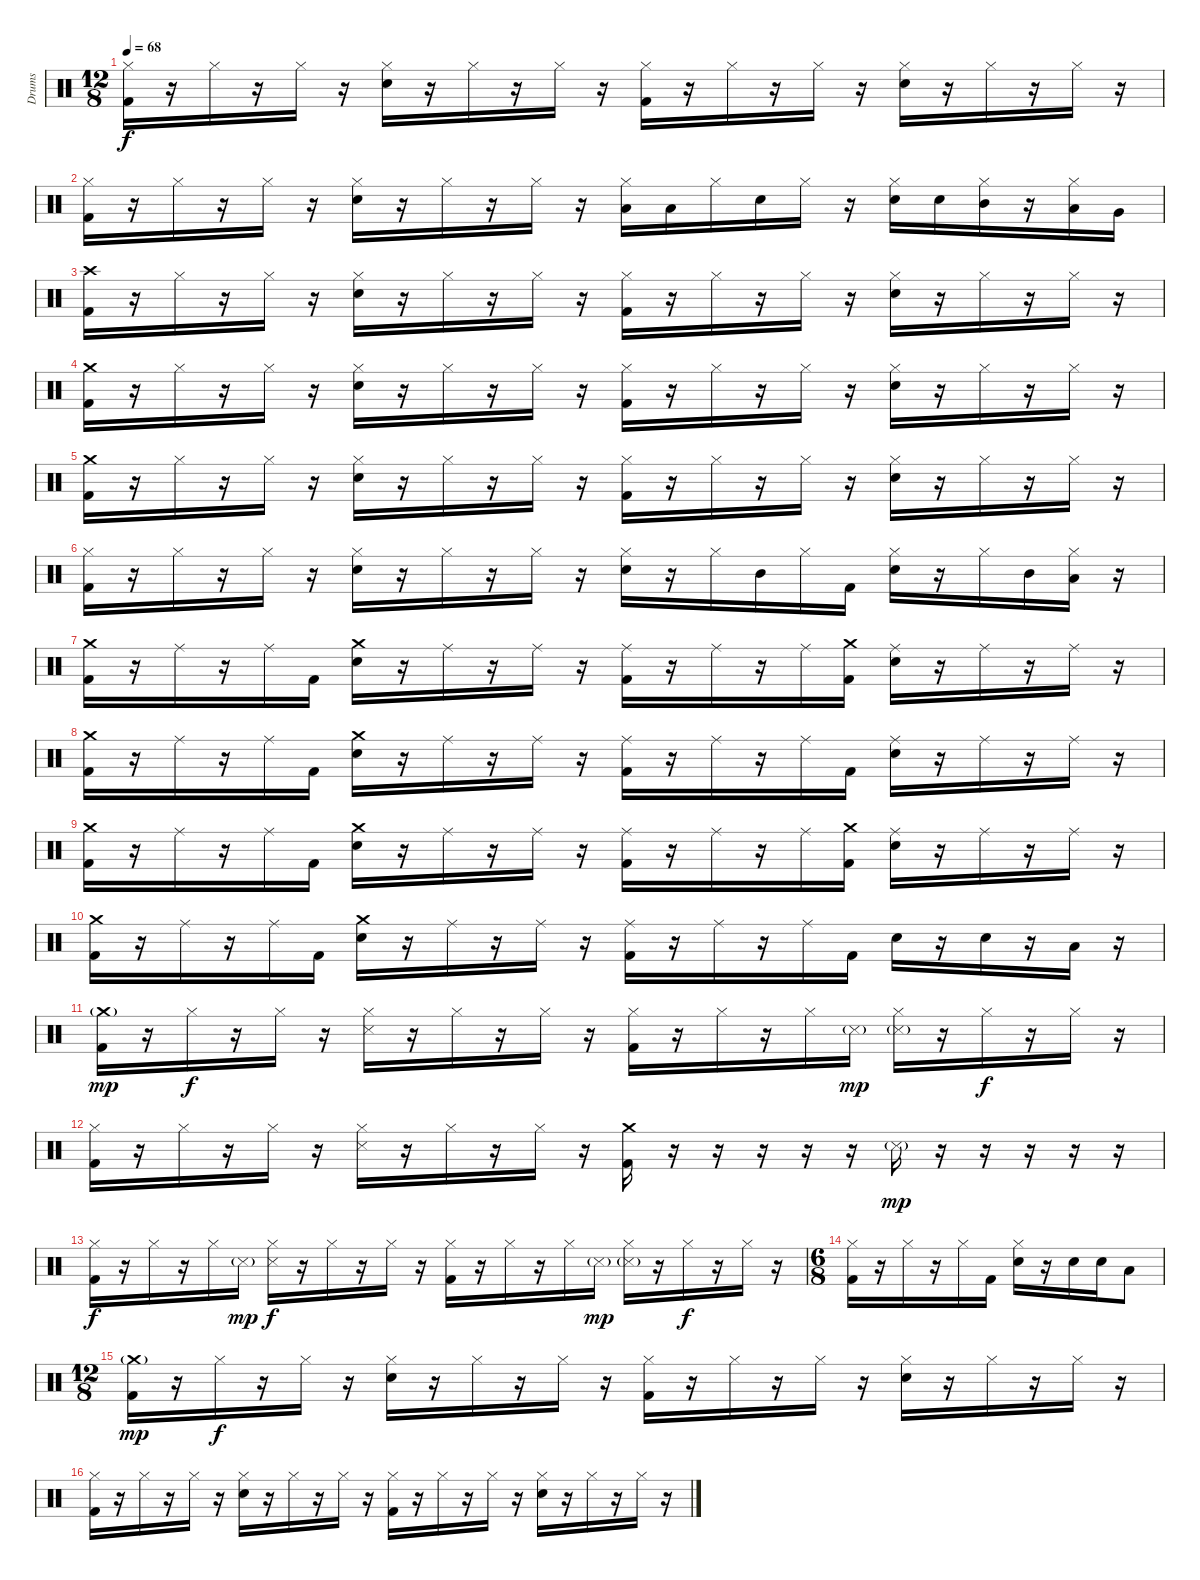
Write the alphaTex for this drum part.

\track ("Drums" "Drums") {instrument percussion}
\staff {score}
\articulation defaults
\ts (12 8)
\tempo 68
\clef neutral
\ks c
("Hi-Hat (closed)" "Kick (hit) 2").16{dy f} r.16 "Hi-Hat (closed)".16 r.16 "Hi-Hat (closed)".16 r.16 ("Hi-Hat (closed)" "Snare (hit) 2").16 r.16 "Hi-Hat (closed)".16 r.16 "Hi-Hat (closed)".16 r.16 ("Hi-Hat (closed)" "Kick (hit) 2").16 r.16 "Hi-Hat (closed)".16 r.16 "Hi-Hat (closed)".16 r.16 ("Hi-Hat (closed)" "Snare (hit) 2").16 r.16 "Hi-Hat (closed)".16 r.16 "Hi-Hat (closed)".16 r.16 |
("Hi-Hat (closed)" "Kick (hit) 2").16 r.16 "Hi-Hat (closed)".16 r.16 "Hi-Hat (closed)".16 r.16 ("Hi-Hat (closed)" "Snare (hit) 2").16 r.16 "Hi-Hat (closed)".16 r.16 "Hi-Hat (closed)".16 r.16 ("Hi-Hat (closed)" "Low Floor Tom (hit)").16 "Low Floor Tom (hit)".16 "Hi-Hat (closed)".16 "Snare (hit) 2".16 "Hi-Hat (closed)".16 r.16 ("Hi-Hat (closed)" "Snare (hit) 2").16 "Snare (hit) 2".16 ("Hi-Hat (closed)" "Mid Tom (hit)").16 r.16 ("Hi-Hat (closed)" "Low Tom (hit)").16 "Very Low Tom (hit)".16 |
("Crash high (hit)" "Kick (hit) 2").16 r.16 "Hi-Hat (closed)".16 r.16 "Hi-Hat (closed)".16 r.16 ("Hi-Hat (closed)" "Snare (hit) 2").16 r.16 "Hi-Hat (closed)".16 r.16 "Hi-Hat (closed)".16 r.16 ("Hi-Hat (closed)" "Kick (hit) 2").16 r.16 "Hi-Hat (closed)".16 r.16 "Hi-Hat (closed)".16 r.16 ("Hi-Hat (closed)" "Snare (hit) 2").16 r.16 "Hi-Hat (closed)".16 r.16 "Hi-Hat (closed)".16 r.16 |
("Crash medium (hit)" "Kick (hit) 2").16 r.16 "Hi-Hat (closed)".16 r.16 "Hi-Hat (closed)".16 r.16 ("Hi-Hat (closed)" "Snare (hit) 2").16 r.16 "Hi-Hat (closed)".16 r.16 "Hi-Hat (closed)".16 r.16 ("Hi-Hat (closed)" "Kick (hit) 2").16 r.16 "Hi-Hat (closed)".16 r.16 "Hi-Hat (closed)".16 r.16 ("Hi-Hat (closed)" "Snare (hit) 2").16 r.16 "Hi-Hat (closed)".16 r.16 "Hi-Hat (closed)".16 r.16 |
("Crash medium (hit)" "Kick (hit) 2").16 r.16 "Hi-Hat (closed)".16 r.16 "Hi-Hat (closed)".16 r.16 ("Hi-Hat (closed)" "Snare (hit) 2").16 r.16 "Hi-Hat (closed)".16 r.16 "Hi-Hat (closed)".16 r.16 ("Hi-Hat (closed)" "Kick (hit) 2").16 r.16 "Hi-Hat (closed)".16 r.16 "Hi-Hat (closed)".16 r.16 ("Hi-Hat (closed)" "Snare (hit) 2").16 r.16 "Hi-Hat (closed)".16 r.16 "Hi-Hat (closed)".16 r.16 |
("Hi-Hat (closed)" "Kick (hit) 2").16 r.16 "Hi-Hat (closed)".16 r.16 "Hi-Hat (closed)".16 r.16 ("Hi-Hat (closed)" "Snare (hit) 2").16 r.16 "Hi-Hat (closed)".16 r.16 "Hi-Hat (closed)".16 r.16 ("Hi-Hat (closed)" "Snare (hit) 2").16 r.16 "Hi-Hat (closed)".16 "Mid Tom (hit)".16 "Hi-Hat (closed)".16 "Kick (hit) 2".16 ("Hi-Hat (closed)" "Snare (hit) 2").16 r.16 "Hi-Hat (closed)".16 "Mid Tom (hit)".16 ("Hi-Hat (closed)" "Low Tom (hit)").16 r.16 |
("Crash medium (hit)" "Kick (hit) 2").16 r.16 "Ride (middle)".16 r.16 "Ride (middle)".16 "Kick (hit) 2".16 ("Crash medium (hit)" "Snare (hit) 2").16 r.16 "Ride (middle)".16 r.16 "Ride (middle)".16 r.16 ("Ride (middle)" "Kick (hit) 2").16 r.16 "Ride (middle)".16 r.16 "Ride (middle)".16 ("Crash medium (hit)" "Kick (hit) 2").16 ("Ride (middle)" "Snare (hit) 2").16 r.16 "Ride (middle)".16 r.16 "Ride (middle)".16 r.16 |
("Crash medium (hit)" "Kick (hit) 2").16 r.16 "Ride (middle)".16 r.16 "Ride (middle)".16 "Kick (hit) 2".16 ("Crash medium (hit)" "Snare (hit) 2").16 r.16 "Ride (middle)".16 r.16 "Ride (middle)".16 r.16 ("Ride (middle)" "Kick (hit) 2").16 r.16 "Ride (middle)".16 r.16 "Ride (middle)".16 "Kick (hit) 2".16 ("Ride (middle)" "Snare (hit) 2").16 r.16 "Ride (middle)".16 r.16 "Ride (middle)".16 r.16 |
("Crash medium (hit)" "Kick (hit) 2").16 r.16 "Ride (middle)".16 r.16 "Ride (middle)".16 "Kick (hit) 2".16 ("Crash medium (hit)" "Snare (hit) 2").16 r.16 "Ride (middle)".16 r.16 "Ride (middle)".16 r.16 ("Ride (middle)" "Kick (hit) 2").16 r.16 "Ride (middle)".16 r.16 "Ride (middle)".16 ("Crash medium (hit)" "Kick (hit) 2").16 ("Ride (middle)" "Snare (hit) 2").16 r.16 "Ride (middle)".16 r.16 "Ride (middle)".16 r.16 |
("Crash medium (hit)" "Kick (hit) 2").16 r.16 "Ride (middle)".16 r.16 "Ride (middle)".16 "Kick (hit) 2".16 ("Crash medium (hit)" "Snare (hit) 2").16 r.16 "Ride (middle)".16 r.16 "Ride (middle)".16 r.16 ("Ride (middle)" "Kick (hit) 2").16 r.16 "Ride (middle)".16 r.16 "Ride (middle)".16 "Kick (hit) 2".16 "Snare (hit) 2".16 r.16 "Snare (hit) 2".16 r.16 "Low Tom (hit)".16 r.16 |
("Crash medium (hit)"{g} "Kick (hit) 2").16{dy mp} r.16 "Hi-Hat (closed)".16{dy f} r.16 "Hi-Hat (closed)".16 r.16 ("Hi-Hat (closed)" "Snare (side stick) 3").16 r.16 "Hi-Hat (closed)".16 r.16 "Hi-Hat (closed)".16 r.16 ("Hi-Hat (closed)" "Kick (hit) 2").16 r.16 "Hi-Hat (closed)".16 r.16 "Hi-Hat (closed)".16 "Snare (side stick) 3"{g}.16{dy mp} ("Hi-Hat (closed)" "Snare (side stick) 3"{g}).16 r.16 "Hi-Hat (closed)".16{dy f} r.16 "Hi-Hat (closed)".16 r.16 |
("Hi-Hat (closed)" "Kick (hit) 2").16 r.16 "Hi-Hat (closed)".16 r.16 "Hi-Hat (closed)".16 r.16 ("Hi-Hat (closed)" "Snare (side stick) 3").16 r.16 "Hi-Hat (closed)".16 r.16 "Hi-Hat (closed)".16 r.16 ("Crash medium (hit)" "Kick (hit) 2").16 r.16 r.16 r.16 r.16 r.16 "Snare (side stick) 3"{g}.16{dy mp} r.16 r.16 r.16 r.16 r.16 |
("Hi-Hat (closed)" "Kick (hit) 2").16{dy f} r.16 "Hi-Hat (closed)".16 r.16 "Hi-Hat (closed)".16 "Snare (side stick) 3"{g}.16{dy mp} ("Hi-Hat (closed)" "Snare (side stick) 3").16{dy f} r.16 "Hi-Hat (closed)".16 r.16 "Hi-Hat (closed)".16 r.16 ("Hi-Hat (closed)" "Kick (hit) 2").16 r.16 "Hi-Hat (closed)".16 r.16 "Hi-Hat (closed)".16 "Snare (side stick) 3"{g}.16{dy mp} ("Hi-Hat (closed)" "Snare (side stick) 3"{g}).16 r.16 "Hi-Hat (closed)".16{dy f} r.16 "Hi-Hat (closed)".16 r.16 |
\ts (6 8)
("Hi-Hat (closed)" "Kick (hit) 2").16 r.16 "Hi-Hat (closed)".16 r.16 "Hi-Hat (closed)".16 "Kick (hit) 2".16 ("Hi-Hat (closed)" "Snare (hit) 2").16 r.16 "Snare (hit) 2".16 "Snare (hit) 2".16 "Low Tom (hit)".8 |
\ts (12 8)
("Crash medium (hit)"{g} "Kick (hit) 2").16{dy mp} r.16 "Hi-Hat (closed)".16{dy f} r.16 "Hi-Hat (closed)".16 r.16 ("Hi-Hat (closed)" "Snare (hit) 2").16 r.16 "Hi-Hat (closed)".16 r.16 "Hi-Hat (closed)".16 r.16 ("Hi-Hat (closed)" "Kick (hit) 2").16 r.16 "Hi-Hat (closed)".16 r.16 "Hi-Hat (closed)".16 r.16 ("Hi-Hat (closed)" "Snare (hit) 2").16 r.16 "Hi-Hat (closed)".16 r.16 "Hi-Hat (closed)".16 r.16 |
("Hi-Hat (closed)" "Kick (hit) 2").16 r.16 "Hi-Hat (closed)".16 r.16 "Hi-Hat (closed)".16 r.16 ("Hi-Hat (closed)" "Snare (hit) 2").16 r.16 "Hi-Hat (closed)".16 r.16 "Hi-Hat (closed)".16 r.16 ("Hi-Hat (closed)" "Kick (hit) 2").16 r.16 "Hi-Hat (closed)".16 r.16 "Hi-Hat (closed)".16 r.16 ("Hi-Hat (closed)" "Snare (hit) 2").16 r.16 "Hi-Hat (closed)".16 r.16 "Hi-Hat (closed)".16 r.16
